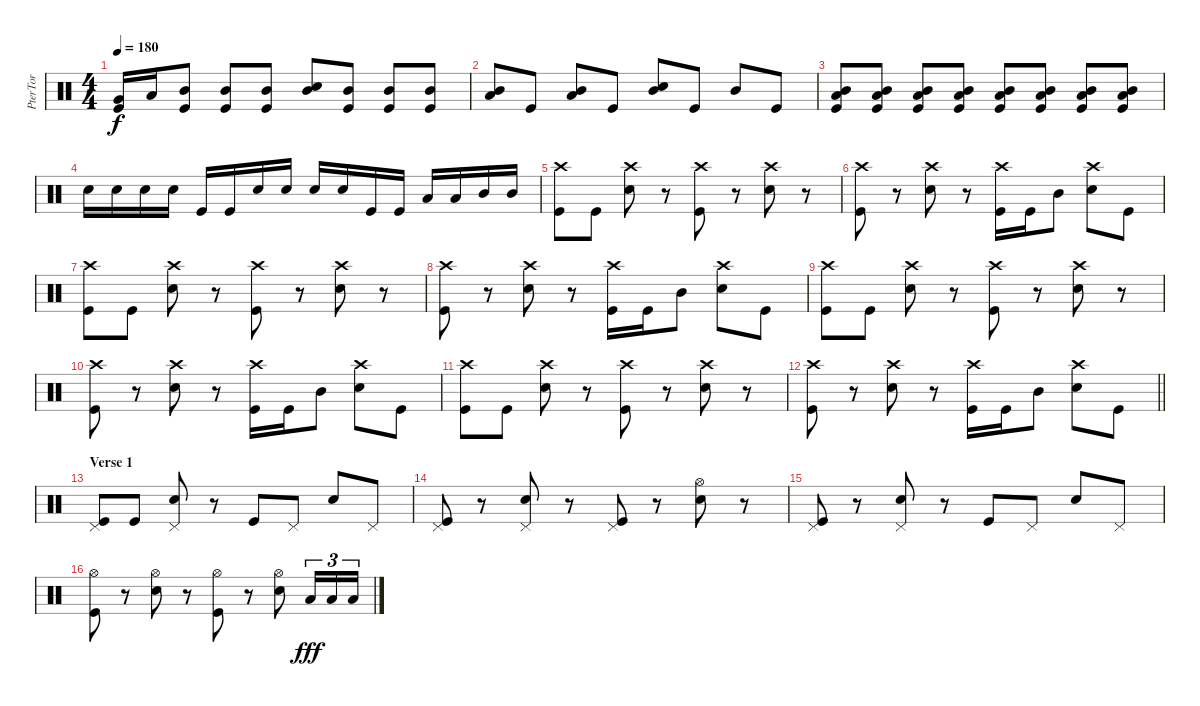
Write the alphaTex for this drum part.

\track ("PterTor" "PterTor") {instrument percussion}
\staff {score}
\articulation defaults
\ts (4 4)
\tempo 180
\clef neutral
\ks c
("Very Low Tom (hit)" "Kick (hit)").16{dy f} "Low Tom (hit)".16 ("Mid Tom (hit)" "Kick (hit)").8 ("Mid Tom (hit)" "Kick (hit)").8 ("Mid Tom (hit)" "Kick (hit)").8 ("Electric Snare (hit)" "Mid Tom (hit)").8 ("Mid Tom (hit)" "Kick (hit)").8 ("Mid Tom (hit)" "Kick (hit)").8 ("Mid Tom (hit)" "Kick (hit)").8 |
("Low Tom (hit)" "Mid Tom (hit)").8 "Kick (hit)".8 ("Low Tom (hit)" "Mid Tom (hit)").8 "Kick (hit)".8 ("Snare (hit) 2" "Mid Tom (hit)").8 "Kick (hit)".8 "Mid Tom (hit)".8 "Kick (hit)".8 |
("Low Tom (hit)" "Mid Tom (hit)" "Kick (hit)").8 ("Low Tom (hit)" "Mid Tom (hit)" "Kick (hit)").8 ("Low Tom (hit)" "Mid Tom (hit)" "Kick (hit)").8 ("Low Tom (hit)" "Mid Tom (hit)" "Kick (hit)").8 ("Low Tom (hit)" "Mid Tom (hit)" "Kick (hit)").8 ("Low Tom (hit)" "Mid Tom (hit)" "Kick (hit)").8 ("Low Tom (hit)" "Mid Tom (hit)" "Kick (hit)").8 ("Low Tom (hit)" "Mid Tom (hit)" "Kick (hit)").8 |
"Electric Snare (hit)".16 "Electric Snare (hit)".16 "Electric Snare (hit)".16 "Electric Snare (hit)".16 "Kick (hit)".16 "Kick (hit)".16 "Electric Snare (hit)".16 "Electric Snare (hit)".16 "Electric Snare (hit)".16 "Electric Snare (hit)".16 "Kick (hit)".16 "Kick (hit)".16 "Low Tom (hit)".16 "Low Tom (hit)".16 "Mid Tom (hit)".16 "Mid Tom (hit)".16 |
("Crash high (hit)" "Kick (hit)").8 "Kick (hit)".8 ("Crash high (hit)" "Electric Snare (hit)").8 r.8 ("Crash high (hit)" "Kick (hit)").8 r.8 ("Crash high (hit)" "Electric Snare (hit)").8 r.8 |
("Crash high (hit)" "Kick (hit)").8 r.8 ("Crash high (hit)" "Electric Snare (hit)").8 r.8 ("Crash high (hit)" "Kick (hit)").16 "Kick (hit)".16 "Mid Tom (hit)".8 ("Crash high (hit)" "Electric Snare (hit)").8 "Kick (hit)".8 |
("Crash high (hit)" "Kick (hit)").8 "Kick (hit)".8 ("Crash high (hit)" "Electric Snare (hit)").8 r.8 ("Crash high (hit)" "Kick (hit)").8 r.8 ("Crash high (hit)" "Electric Snare (hit)").8 r.8 |
("Crash high (hit)" "Kick (hit)").8 r.8 ("Crash high (hit)" "Electric Snare (hit)").8 r.8 ("Crash high (hit)" "Kick (hit)").16 "Kick (hit)".16 "Mid Tom (hit)".8 ("Crash high (hit)" "Electric Snare (hit)").8 "Kick (hit)".8 |
("Crash high (hit)" "Kick (hit)").8 "Kick (hit)".8 ("Crash high (hit)" "Electric Snare (hit)").8 r.8 ("Crash high (hit)" "Kick (hit)").8 r.8 ("Crash high (hit)" "Electric Snare (hit)").8 r.8 |
("Crash high (hit)" "Kick (hit)").8 r.8 ("Crash high (hit)" "Electric Snare (hit)").8 r.8 ("Crash high (hit)" "Kick (hit)").16 "Kick (hit)".16 "Mid Tom (hit)".8 ("Crash high (hit)" "Electric Snare (hit)").8 "Kick (hit)".8 |
("Crash high (hit)" "Kick (hit)").8 "Kick (hit)".8 ("Crash high (hit)" "Electric Snare (hit)").8 r.8 ("Crash high (hit)" "Kick (hit)").8 r.8 ("Crash high (hit)" "Electric Snare (hit)").8 r.8 |
\barLineRight lightlight
("Crash high (hit)" "Kick (hit)").8 r.8 ("Crash high (hit)" "Electric Snare (hit)").8 r.8 ("Crash high (hit)" "Kick (hit)").16 "Kick (hit)".16 "Mid Tom (hit)".8 ("Crash high (hit)" "Electric Snare (hit)").8 "Kick (hit)".8 |
\section ("" "Verse 1")
("Pedal Hi-Hat (hit)" "Kick (hit)").8 "Kick (hit)".8 ("Pedal Hi-Hat (hit)" "Electric Snare (hit)").8 r.8 "Kick (hit)".8 "Pedal Hi-Hat (hit)".8 "Electric Snare (hit)".8 "Pedal Hi-Hat (hit)".8 |
("Pedal Hi-Hat (hit)" "Kick (hit)").8 r.8 ("Pedal Hi-Hat (hit)" "Electric Snare (hit)").8 r.8 ("Pedal Hi-Hat (hit)" "Kick (hit)").8 r.8 ("Hi-Hat (open)" "Electric Snare (hit)").8 r.8 |
("Pedal Hi-Hat (hit)" "Kick (hit)").8 r.8 ("Pedal Hi-Hat (hit)" "Electric Snare (hit)").8 r.8 "Kick (hit)".8 "Pedal Hi-Hat (hit)".8 "Electric Snare (hit)".8 "Pedal Hi-Hat (hit)".8 |
("Hi-Hat (open)" "Kick (hit)").8 r.8 ("Hi-Hat (open)" "Electric Snare (hit)").8 r.8 ("Hi-Hat (open)" "Kick (hit)").8 r.8 ("Hi-Hat (open)" "Electric Snare (hit)").8 "Low Floor Tom (hit)".16{tu (3 2) dy fff} "Low Floor Tom (hit)".16{tu (3 2)} "Low Floor Tom (hit)".16{tu (3 2)}
